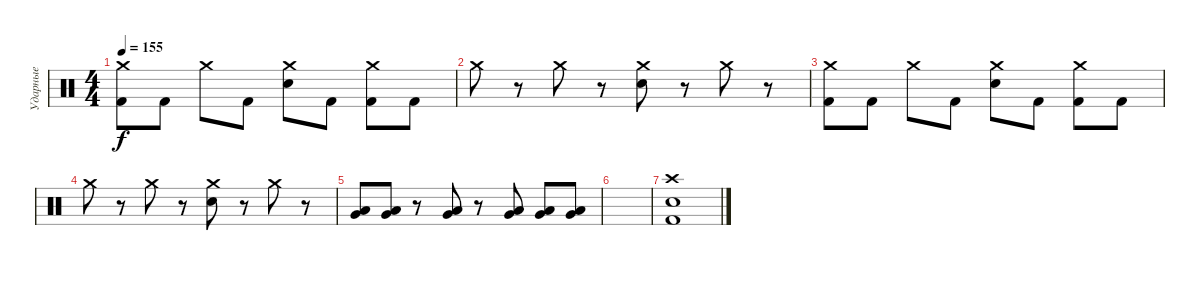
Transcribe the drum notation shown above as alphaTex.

\track ("Ударные" "Ударные") {instrument percussion}
\staff {score}
\articulation defaults
\ts (4 4)
\tempo 155
\clef neutral
\ks c
("Crash medium (hit)" "Kick (hit) 2").8{dy f} "Kick (hit) 2".8 "Crash medium (hit)".8 "Kick (hit) 2".8 ("Crash medium (hit)" "Electric Snare (hit)").8 "Kick (hit) 2".8 ("Crash medium (hit)" "Kick (hit) 2").8 "Kick (hit) 2".8 |
"Crash medium (hit)".8 r.8 "Crash medium (hit)".8 r.8 ("Crash medium (hit)" "Electric Snare (hit)").8 r.8 "Crash medium (hit)".8 r.8 |
("Crash medium (hit)" "Kick (hit) 2").8 "Kick (hit) 2".8 "Crash medium (hit)".8 "Kick (hit) 2".8 ("Crash medium (hit)" "Electric Snare (hit)").8 "Kick (hit) 2".8 ("Crash medium (hit)" "Kick (hit) 2").8 "Kick (hit) 2".8 |
"Crash medium (hit)".8 r.8 "Crash medium (hit)".8 r.8 ("Crash medium (hit)" "Electric Snare (hit)").8 r.8 "Crash medium (hit)".8 r.8 |
("Low Tom (hit)" "Very Low Tom (hit)").8 ("Low Tom (hit)" "Very Low Tom (hit)").8 r.8 ("Low Tom (hit)" "Very Low Tom (hit)").8 r.8 ("Low Tom (hit)" "Very Low Tom (hit)").8 ("Low Tom (hit)" "Very Low Tom (hit)").8 ("Low Tom (hit)" "Very Low Tom (hit)").8 |
|
("Crash high (hit)" "Electric Snare (hit)" "Kick (hit) 2").1
